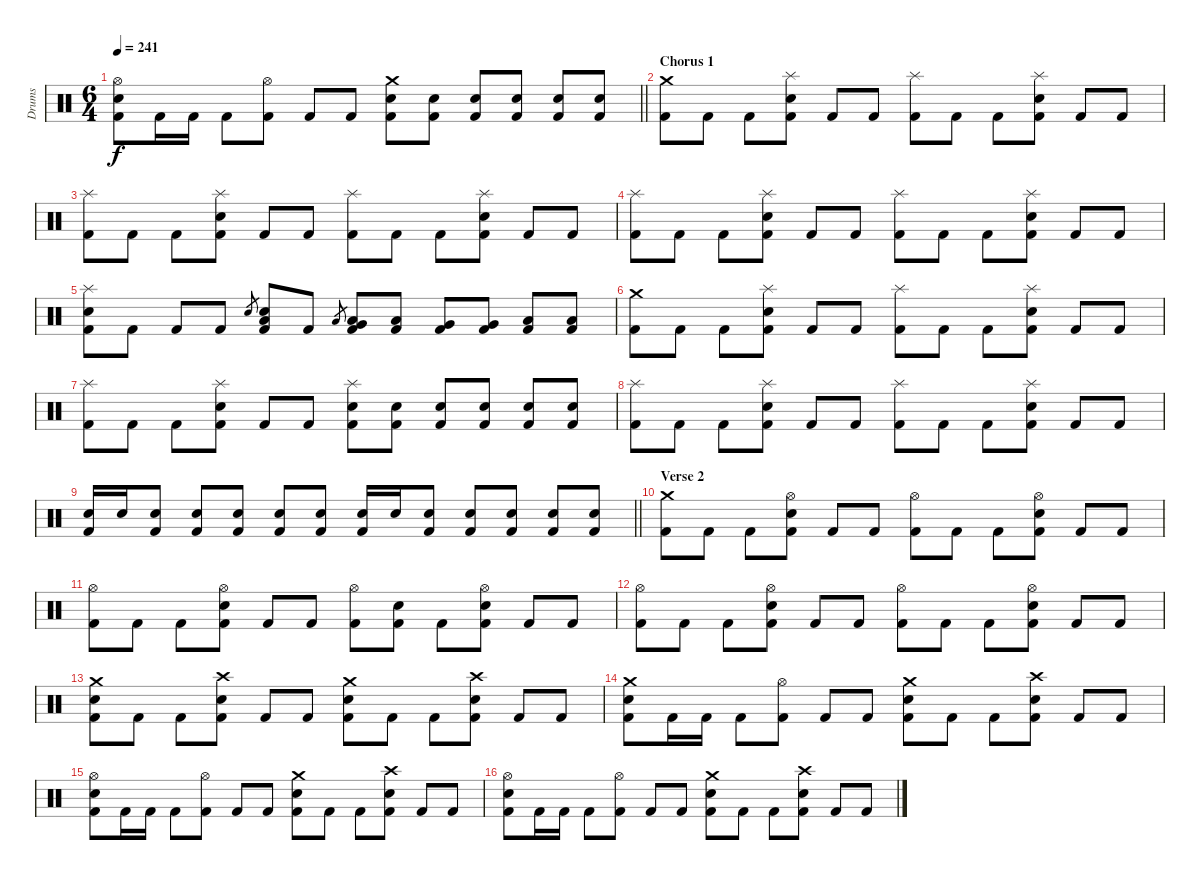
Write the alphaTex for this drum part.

\track ("Drums" "Drums") {instrument percussion}
\staff {score}
\articulation defaults
\ts (6 4)
\tempo 241
\clef neutral
\barLineRight lightlight
\ks c
("Hi-Hat (open)" "Electric Snare (hit)" "Kick (hit) 2").8{dy f} "Kick (hit) 2".16 "Kick (hit) 2".16 "Kick (hit) 2".8 ("Hi-Hat (open)" "Kick (hit) 2").8 "Kick (hit) 2".8 "Kick (hit) 2".8 ("Crash medium (hit)" "Electric Snare (hit)" "Kick (hit) 2").8 ("Electric Snare (hit)" "Kick (hit) 2").8 ("Electric Snare (hit)" "Kick (hit) 2").8 ("Electric Snare (hit)" "Kick (hit) 2").8 ("Electric Snare (hit)" "Kick (hit) 2").8 ("Electric Snare (hit)" "Kick (hit) 2").8 |
\section ("" "Chorus 1")
("Crash medium (hit)" "Kick (hit) 2").8 "Kick (hit) 2".8 "Kick (hit) 2".8 ("Splash (hit)" "Electric Snare (hit)" "Kick (hit) 2").8 "Kick (hit) 2".8 "Kick (hit) 2".8 ("Splash (hit)" "Kick (hit) 2").8 "Kick (hit) 2".8 "Kick (hit) 2".8 ("Splash (hit)" "Electric Snare (hit)" "Kick (hit) 2").8 "Kick (hit) 2".8 "Kick (hit) 2".8 |
("Splash (hit)" "Kick (hit) 2").8 "Kick (hit) 2".8 "Kick (hit) 2".8 ("Splash (hit)" "Electric Snare (hit)" "Kick (hit) 2").8 "Kick (hit) 2".8 "Kick (hit) 2".8 ("Splash (hit)" "Kick (hit) 2").8 "Kick (hit) 2".8 "Kick (hit) 2".8 ("Splash (hit)" "Electric Snare (hit)" "Kick (hit) 2").8 "Kick (hit) 2".8 "Kick (hit) 2".8 |
("Splash (hit)" "Kick (hit) 2").8 "Kick (hit) 2".8 "Kick (hit) 2".8 ("Splash (hit)" "Electric Snare (hit)" "Kick (hit) 2").8 "Kick (hit) 2".8 "Kick (hit) 2".8 ("Splash (hit)" "Kick (hit) 2").8 "Kick (hit) 2".8 "Kick (hit) 2".8 ("Splash (hit)" "Electric Snare (hit)" "Kick (hit) 2").8 "Kick (hit) 2".8 "Kick (hit) 2".8 |
("Splash (hit)" "Electric Snare (hit)" "Kick (hit) 2").8 "Kick (hit) 2".8 "Kick (hit) 2".8 "Kick (hit) 2".8 "Electric Snare (hit)".8{gr} ("Low Tom (hit)" "Electric Snare (hit)" "Kick (hit) 2").8 "Kick (hit) 2".8 "Low Tom (hit)".8{gr} ("Low Tom (hit)" "Very Low Tom (hit)" "Kick (hit) 2").8 ("Low Tom (hit)" "Kick (hit) 2").8 ("Very Low Tom (hit)" "Kick (hit) 2").8 ("Very Low Tom (hit)" "Kick (hit) 2").8 ("Low Floor Tom (hit)" "Kick (hit) 2").8 ("Low Floor Tom (hit)" "Kick (hit) 2").8 |
("Crash medium (hit)" "Kick (hit) 2").8 "Kick (hit) 2".8 "Kick (hit) 2".8 ("Splash (hit)" "Electric Snare (hit)" "Kick (hit) 2").8 "Kick (hit) 2".8 "Kick (hit) 2".8 ("Splash (hit)" "Kick (hit) 2").8 "Kick (hit) 2".8 "Kick (hit) 2".8 ("Splash (hit)" "Electric Snare (hit)" "Kick (hit) 2").8 "Kick (hit) 2".8 "Kick (hit) 2".8 |
("Splash (hit)" "Kick (hit) 2").8 "Kick (hit) 2".8 "Kick (hit) 2".8 ("Splash (hit)" "Electric Snare (hit)" "Kick (hit) 2").8 "Kick (hit) 2".8 "Kick (hit) 2".8 ("Splash (hit)" "Electric Snare (hit)" "Kick (hit) 2").8 ("Electric Snare (hit)" "Kick (hit) 2").8 ("Electric Snare (hit)" "Kick (hit) 2").8 ("Electric Snare (hit)" "Kick (hit) 2").8 ("Electric Snare (hit)" "Kick (hit) 2").8 ("Electric Snare (hit)" "Kick (hit) 2").8 |
("Splash (hit)" "Kick (hit) 2").8 "Kick (hit) 2".8 "Kick (hit) 2".8 ("Splash (hit)" "Electric Snare (hit)" "Kick (hit) 2").8 "Kick (hit) 2".8 "Kick (hit) 2".8 ("Splash (hit)" "Kick (hit) 2").8 "Kick (hit) 2".8 "Kick (hit) 2".8 ("Splash (hit)" "Electric Snare (hit)" "Kick (hit) 2").8 "Kick (hit) 2".8 "Kick (hit) 2".8 |
\barLineRight lightlight
("Electric Snare (hit)" "Kick (hit) 2").16 "Electric Snare (hit)".16 ("Electric Snare (hit)" "Kick (hit) 2").8 ("Electric Snare (hit)" "Kick (hit) 2").8 ("Electric Snare (hit)" "Kick (hit) 2").8 ("Electric Snare (hit)" "Kick (hit) 2").8 ("Electric Snare (hit)" "Kick (hit) 2").8 ("Electric Snare (hit)" "Kick (hit) 2").16 "Electric Snare (hit)".16 ("Electric Snare (hit)" "Kick (hit) 2").8 ("Electric Snare (hit)" "Kick (hit) 2").8 ("Electric Snare (hit)" "Kick (hit) 2").8 ("Electric Snare (hit)" "Kick (hit) 2").8 ("Electric Snare (hit)" "Kick (hit) 2").8 |
\section ("" "Verse 2")
("Crash medium (hit)" "Kick (hit) 2").8 "Kick (hit) 2".8 "Kick (hit) 2".8 ("Hi-Hat (open)" "Electric Snare (hit)" "Kick (hit) 2").8 "Kick (hit) 2".8 "Kick (hit) 2".8 ("Hi-Hat (open)" "Kick (hit) 2").8 "Kick (hit) 2".8 "Kick (hit) 2".8 ("Hi-Hat (open)" "Electric Snare (hit)" "Kick (hit) 2").8 "Kick (hit) 2".8 "Kick (hit) 2".8 |
("Hi-Hat (open)" "Kick (hit) 2").8 "Kick (hit) 2".8 "Kick (hit) 2".8 ("Hi-Hat (open)" "Electric Snare (hit)" "Kick (hit) 2").8 "Kick (hit) 2".8 "Kick (hit) 2".8 ("Hi-Hat (open)" "Kick (hit) 2").8 ("Electric Snare (hit)" "Kick (hit) 2").8 "Kick (hit) 2".8 ("Hi-Hat (open)" "Electric Snare (hit)" "Kick (hit) 2").8 "Kick (hit) 2".8 "Kick (hit) 2".8 |
("Hi-Hat (open)" "Kick (hit) 2").8 "Kick (hit) 2".8 "Kick (hit) 2".8 ("Hi-Hat (open)" "Electric Snare (hit)" "Kick (hit) 2").8 "Kick (hit) 2".8 "Kick (hit) 2".8 ("Hi-Hat (open)" "Kick (hit) 2").8 "Kick (hit) 2".8 "Kick (hit) 2".8 ("Hi-Hat (open)" "Electric Snare (hit)" "Kick (hit) 2").8 "Kick (hit) 2".8 "Kick (hit) 2".8 |
("Crash medium (hit)" "Electric Snare (hit)" "Kick (hit) 2").8 "Kick (hit) 2".8 "Kick (hit) 2".8 ("Crash high (hit)" "Electric Snare (hit)" "Kick (hit) 2").8 "Kick (hit) 2".8 "Kick (hit) 2".8 ("Crash medium (hit)" "Electric Snare (hit)" "Kick (hit) 2").8 "Kick (hit) 2".8 "Kick (hit) 2".8 ("Crash high (hit)" "Electric Snare (hit)" "Kick (hit) 2").8 "Kick (hit) 2".8 "Kick (hit) 2".8 |
("Crash medium (hit)" "Electric Snare (hit)" "Kick (hit) 2").8 "Kick (hit) 2".16 "Kick (hit) 2".16 "Kick (hit) 2".8 ("Hi-Hat (open)" "Kick (hit) 2").8 "Kick (hit) 2".8 "Kick (hit) 2".8 ("Crash medium (hit)" "Electric Snare (hit)" "Kick (hit) 2").8 "Kick (hit) 2".8 "Kick (hit) 2".8 ("Crash high (hit)" "Electric Snare (hit)" "Kick (hit) 2").8 "Kick (hit) 2".8 "Kick (hit) 2".8 |
("Hi-Hat (open)" "Electric Snare (hit)" "Kick (hit) 2").8 "Kick (hit) 2".16 "Kick (hit) 2".16 "Kick (hit) 2".8 ("Hi-Hat (open)" "Kick (hit) 2").8 "Kick (hit) 2".8 "Kick (hit) 2".8 ("Crash medium (hit)" "Electric Snare (hit)" "Kick (hit) 2").8 "Kick (hit) 2".8 "Kick (hit) 2".8 ("Crash high (hit)" "Electric Snare (hit)" "Kick (hit) 2").8 "Kick (hit) 2".8 "Kick (hit) 2".8 |
("Hi-Hat (open)" "Electric Snare (hit)" "Kick (hit) 2").8 "Kick (hit) 2".16 "Kick (hit) 2".16 "Kick (hit) 2".8 ("Hi-Hat (open)" "Kick (hit) 2").8 "Kick (hit) 2".8 "Kick (hit) 2".8 ("Crash medium (hit)" "Electric Snare (hit)" "Kick (hit) 2").8 "Kick (hit) 2".8 "Kick (hit) 2".8 ("Crash high (hit)" "Electric Snare (hit)" "Kick (hit) 2").8 "Kick (hit) 2".8 "Kick (hit) 2".8
